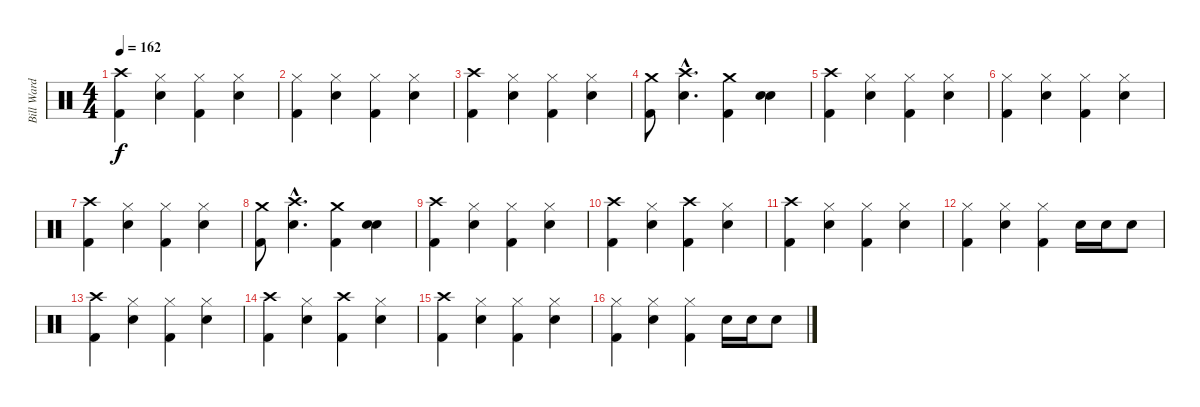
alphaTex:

\track ("Bill Ward" "Bill Ward") {instrument percussion}
\staff {score}
\articulation defaults
\ts (4 4)
\tempo 162
\clef neutral
\ks c
("Crash high (hit)" "Kick (hit) 2").4{dy f} ("Hi-Hat (closed)" "Snare (hit) 2").4 ("Hi-Hat (closed)" "Kick (hit) 2").4 ("Hi-Hat (closed)" "Snare (hit) 2").4 |
("Hi-Hat (closed)" "Kick (hit) 2").4 ("Hi-Hat (closed)" "Snare (hit) 2").4 ("Hi-Hat (closed)" "Kick (hit) 2").4 ("Hi-Hat (closed)" "Snare (hit) 2").4 |
("Crash high (hit)" "Kick (hit) 2").4 ("Hi-Hat (closed)" "Snare (hit) 2").4 ("Hi-Hat (closed)" "Kick (hit) 2").4 ("Hi-Hat (closed)" "Snare (hit) 2").4 |
("Kick (hit) 2" "Crash medium (hit)").8 ("Snare (hit) 2"{hac} "Crash high (hit)"{hac}).4{d} ("Kick (hit) 2" "Crash medium (hit)").4 ("Snare (hit) 2" "Snare (hit) 2").4{bd 480} |
("Crash high (hit)" "Kick (hit) 2").4 ("Hi-Hat (closed)" "Snare (hit) 2").4 ("Hi-Hat (closed)" "Kick (hit) 2").4 ("Hi-Hat (closed)" "Snare (hit) 2").4 |
("Hi-Hat (closed)" "Kick (hit) 2").4 ("Hi-Hat (closed)" "Snare (hit) 2").4 ("Hi-Hat (closed)" "Kick (hit) 2").4 ("Hi-Hat (closed)" "Snare (hit) 2").4 |
("Crash high (hit)" "Kick (hit) 2").4 ("Hi-Hat (closed)" "Snare (hit) 2").4 ("Hi-Hat (closed)" "Kick (hit) 2").4 ("Hi-Hat (closed)" "Snare (hit) 2").4 |
("Kick (hit) 2" "Crash medium (hit)").8 ("Snare (hit) 2"{hac} "Crash high (hit)"{hac}).4{d} ("Kick (hit) 2" "Crash medium (hit)").4 ("Snare (hit) 2" "Snare (hit) 2").4{bd 480} |
("Crash high (hit)" "Kick (hit) 2").4 ("Hi-Hat (closed)" "Snare (hit) 2").4 ("Hi-Hat (closed)" "Kick (hit) 2").4 ("Hi-Hat (closed)" "Snare (hit) 2").4 |
("Crash high (hit)" "Kick (hit) 2").4 ("Hi-Hat (closed)" "Snare (hit) 2").4 ("Crash high (hit)" "Kick (hit) 2").4 ("Hi-Hat (closed)" "Snare (hit) 2").4 |
("Crash high (hit)" "Kick (hit) 2").4 ("Hi-Hat (closed)" "Snare (hit) 2").4 ("Hi-Hat (closed)" "Kick (hit) 2").4 ("Hi-Hat (closed)" "Snare (hit) 2").4 |
("Hi-Hat (closed)" "Kick (hit) 2").4 ("Hi-Hat (closed)" "Snare (hit) 2").4 ("Hi-Hat (closed)" "Kick (hit) 2").4 "Snare (hit) 2".16 "Snare (hit) 2".16 "Snare (hit) 2".8 |
("Crash high (hit)" "Kick (hit) 2").4 ("Hi-Hat (closed)" "Snare (hit) 2").4 ("Hi-Hat (closed)" "Kick (hit) 2").4 ("Hi-Hat (closed)" "Snare (hit) 2").4 |
("Crash high (hit)" "Kick (hit) 2").4 ("Hi-Hat (closed)" "Snare (hit) 2").4 ("Crash high (hit)" "Kick (hit) 2").4 ("Hi-Hat (closed)" "Snare (hit) 2").4 |
("Crash high (hit)" "Kick (hit) 2").4 ("Hi-Hat (closed)" "Snare (hit) 2").4 ("Hi-Hat (closed)" "Kick (hit) 2").4 ("Hi-Hat (closed)" "Snare (hit) 2").4 |
("Hi-Hat (closed)" "Kick (hit) 2").4 ("Hi-Hat (closed)" "Snare (hit) 2").4 ("Hi-Hat (closed)" "Kick (hit) 2").4 "Snare (hit) 2".16 "Snare (hit) 2".16 "Snare (hit) 2".8
